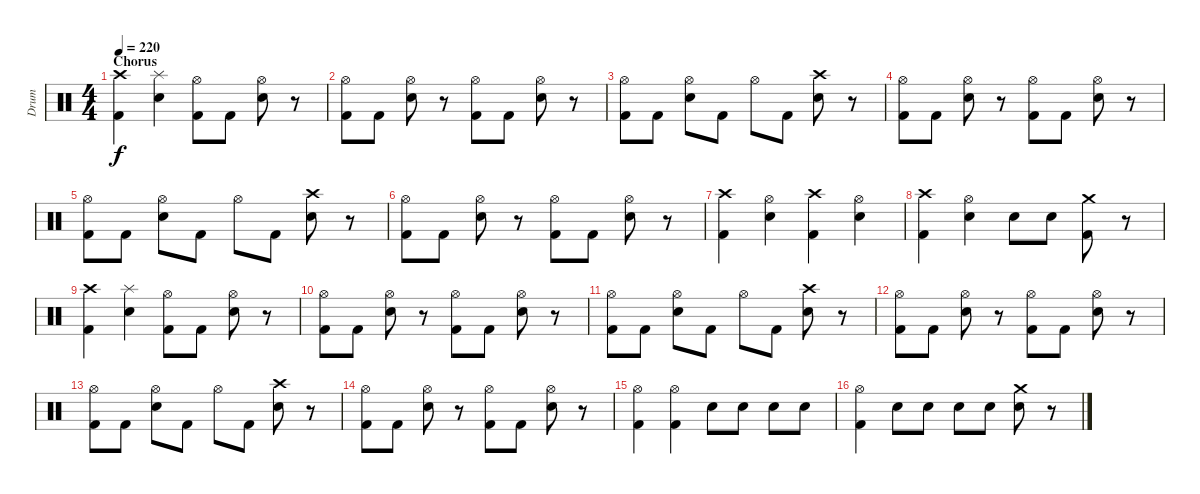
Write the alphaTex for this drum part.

\track ("Drum" "Drum") {instrument percussion}
\staff {score}
\articulation defaults
\ts (4 4)
\section ("" "Chorus")
\tempo 220
\clef neutral
\ks c
("Crash high (hit)" "Kick (hit) 2").4{dy f} ("Splash (hit)" "Electric Snare (hit)").4 ("Kick (hit) 2" "Hi-Hat (open)").8 "Kick (hit) 2".8 ("Electric Snare (hit)" "Hi-Hat (open)").8 r.8 |
("Kick (hit) 2" "Hi-Hat (open)").8 "Kick (hit) 2".8 ("Electric Snare (hit)" "Hi-Hat (open)").8 r.8 ("Kick (hit) 2" "Hi-Hat (open)").8 "Kick (hit) 2".8 ("Electric Snare (hit)" "Hi-Hat (open)").8 r.8 |
("Kick (hit) 2" "Hi-Hat (open)").8 "Kick (hit) 2".8 ("Electric Snare (hit)" "Hi-Hat (open)").8 "Kick (hit) 2".8 "Hi-Hat (open)".8 "Kick (hit) 2".8 ("Electric Snare (hit)" "Crash high (hit)").8 r.8 |
("Kick (hit) 2" "Hi-Hat (open)").8 "Kick (hit) 2".8 ("Electric Snare (hit)" "Hi-Hat (open)").8 r.8 ("Kick (hit) 2" "Hi-Hat (open)").8 "Kick (hit) 2".8 ("Electric Snare (hit)" "Hi-Hat (open)").8 r.8 |
("Kick (hit) 2" "Hi-Hat (open)").8 "Kick (hit) 2".8 ("Electric Snare (hit)" "Hi-Hat (open)").8 "Kick (hit) 2".8 "Hi-Hat (open)".8 "Kick (hit) 2".8 ("Electric Snare (hit)" "Crash high (hit)").8 r.8 |
("Kick (hit) 2" "Hi-Hat (open)").8 "Kick (hit) 2".8 ("Electric Snare (hit)" "Hi-Hat (open)").8 r.8 ("Kick (hit) 2" "Hi-Hat (open)").8 "Kick (hit) 2".8 ("Electric Snare (hit)" "Hi-Hat (open)").8 r.8 |
("Kick (hit) 2" "Crash high (hit)").4 ("Electric Snare (hit)" "Hi-Hat (open)").4 ("Kick (hit) 2" "Crash high (hit)").4 ("Electric Snare (hit)" "Hi-Hat (open)").4 |
("Kick (hit) 2" "Crash high (hit)").4 ("Electric Snare (hit)" "Hi-Hat (open)").4 "Electric Snare (hit)".8 "Electric Snare (hit)".8 ("Kick (hit) 2" "Crash medium (hit)").8 r.8 |
("Crash high (hit)" "Kick (hit) 2").4 ("Splash (hit)" "Electric Snare (hit)").4 ("Kick (hit) 2" "Hi-Hat (open)").8 "Kick (hit) 2".8 ("Electric Snare (hit)" "Hi-Hat (open)").8 r.8 |
("Kick (hit) 2" "Hi-Hat (open)").8 "Kick (hit) 2".8 ("Electric Snare (hit)" "Hi-Hat (open)").8 r.8 ("Kick (hit) 2" "Hi-Hat (open)").8 "Kick (hit) 2".8 ("Electric Snare (hit)" "Hi-Hat (open)").8 r.8 |
("Kick (hit) 2" "Hi-Hat (open)").8 "Kick (hit) 2".8 ("Electric Snare (hit)" "Hi-Hat (open)").8 "Kick (hit) 2".8 "Hi-Hat (open)".8 "Kick (hit) 2".8 ("Electric Snare (hit)" "Crash high (hit)").8 r.8 |
("Kick (hit) 2" "Hi-Hat (open)").8 "Kick (hit) 2".8 ("Electric Snare (hit)" "Hi-Hat (open)").8 r.8 ("Kick (hit) 2" "Hi-Hat (open)").8 "Kick (hit) 2".8 ("Electric Snare (hit)" "Hi-Hat (open)").8 r.8 |
("Kick (hit) 2" "Hi-Hat (open)").8 "Kick (hit) 2".8 ("Electric Snare (hit)" "Hi-Hat (open)").8 "Kick (hit) 2".8 "Hi-Hat (open)".8 "Kick (hit) 2".8 ("Electric Snare (hit)" "Crash high (hit)").8 r.8 |
("Kick (hit) 2" "Hi-Hat (open)").8 "Kick (hit) 2".8 ("Electric Snare (hit)" "Hi-Hat (open)").8 r.8 ("Kick (hit) 2" "Hi-Hat (open)").8 "Kick (hit) 2".8 ("Electric Snare (hit)" "Hi-Hat (open)").8 r.8 |
("Kick (hit) 2" "Hi-Hat (open)").4 ("Kick (hit) 2" "Hi-Hat (open)").4 "Electric Snare (hit)".8 "Electric Snare (hit)".8 "Electric Snare (hit)".8 "Electric Snare (hit)".8 |
("Kick (hit) 2" "Hi-Hat (open)").4 "Electric Snare (hit)".8 "Electric Snare (hit)".8 "Electric Snare (hit)".8 "Electric Snare (hit)".8 ("Crash medium (hit)" "Electric Snare (hit)").8 r.8
